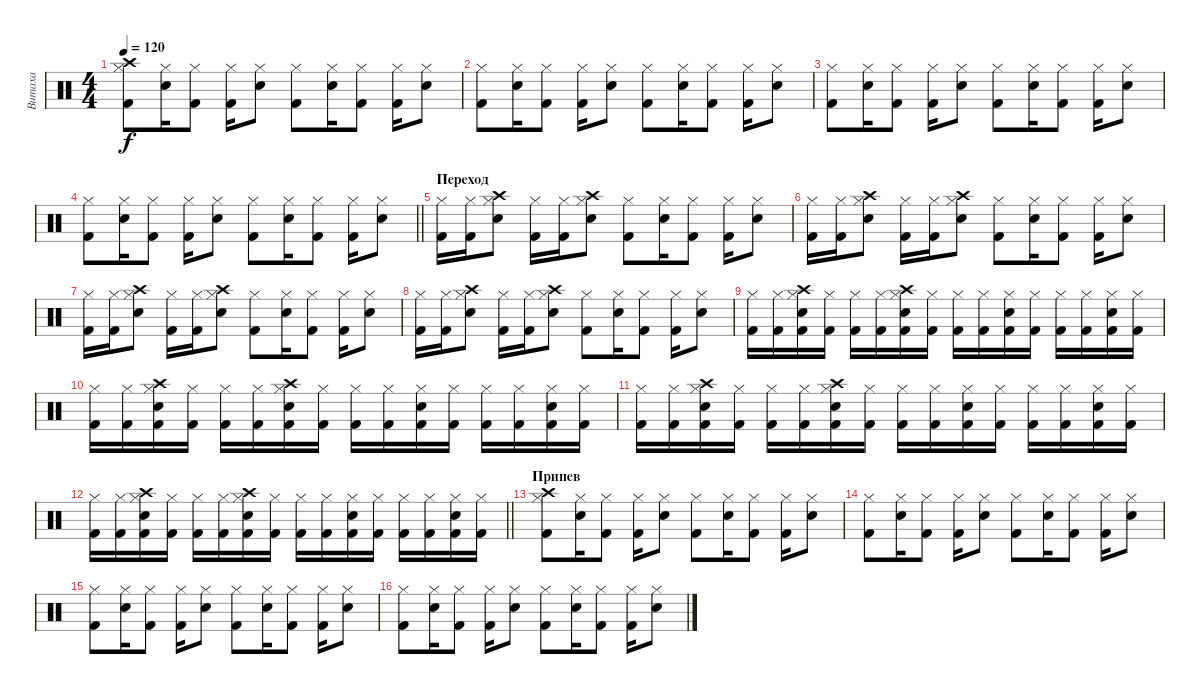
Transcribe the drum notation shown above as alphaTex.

\track ("Витаха" "Витаха") {instrument percussion}
\staff {score}
\articulation defaults
\ts (4 4)
\tempo 120
\clef neutral
\ks c
("Kick (hit) 2" "Crash high (hit)" "Hi-Hat (closed)").8{dy f} ("Electric Snare (hit)" "Hi-Hat (closed)").16 ("Kick (hit) 2" "Hi-Hat (closed)").8 ("Kick (hit) 2" "Hi-Hat (closed)").16 ("Electric Snare (hit)" "Hi-Hat (closed)").8 ("Kick (hit) 2" "Hi-Hat (closed)").8 ("Electric Snare (hit)" "Hi-Hat (closed)").16 ("Kick (hit) 2" "Hi-Hat (closed)").8 ("Kick (hit) 2" "Hi-Hat (closed)").16 ("Electric Snare (hit)" "Hi-Hat (closed)").8 |
("Kick (hit) 2" "Hi-Hat (closed)").8 ("Electric Snare (hit)" "Hi-Hat (closed)").16 ("Kick (hit) 2" "Hi-Hat (closed)").8 ("Kick (hit) 2" "Hi-Hat (closed)").16 ("Electric Snare (hit)" "Hi-Hat (closed)").8 ("Kick (hit) 2" "Hi-Hat (closed)").8 ("Electric Snare (hit)" "Hi-Hat (closed)").16 ("Kick (hit) 2" "Hi-Hat (closed)").8 ("Kick (hit) 2" "Hi-Hat (closed)").16 ("Electric Snare (hit)" "Hi-Hat (closed)").8 |
("Kick (hit) 2" "Hi-Hat (closed)").8 ("Electric Snare (hit)" "Hi-Hat (closed)").16 ("Kick (hit) 2" "Hi-Hat (closed)").8 ("Kick (hit) 2" "Hi-Hat (closed)").16 ("Electric Snare (hit)" "Hi-Hat (closed)").8 ("Kick (hit) 2" "Hi-Hat (closed)").8 ("Electric Snare (hit)" "Hi-Hat (closed)").16 ("Kick (hit) 2" "Hi-Hat (closed)").8 ("Kick (hit) 2" "Hi-Hat (closed)").16 ("Electric Snare (hit)" "Hi-Hat (closed)").8 |
\barLineRight lightlight
("Kick (hit) 2" "Hi-Hat (closed)").8 ("Electric Snare (hit)" "Hi-Hat (closed)").16 ("Kick (hit) 2" "Hi-Hat (closed)").8 ("Kick (hit) 2" "Hi-Hat (closed)").16 ("Electric Snare (hit)" "Hi-Hat (closed)").8 ("Kick (hit) 2" "Hi-Hat (closed)").8 ("Electric Snare (hit)" "Hi-Hat (closed)").16 ("Kick (hit) 2" "Hi-Hat (closed)").8 ("Kick (hit) 2" "Hi-Hat (closed)").16 ("Electric Snare (hit)" "Hi-Hat (closed)").8 |
\section ("" "Переход")
("Kick (hit) 2" "Hi-Hat (closed)").16 ("Kick (hit) 2" "Hi-Hat (closed)").16 ("Electric Snare (hit)" "Hi-Hat (closed)" "Crash high (hit)").8 ("Kick (hit) 2" "Hi-Hat (closed)").16 ("Kick (hit) 2" "Hi-Hat (closed)").16 ("Electric Snare (hit)" "Hi-Hat (closed)" "Crash high (hit)").8 ("Kick (hit) 2" "Hi-Hat (closed)").8 ("Electric Snare (hit)" "Hi-Hat (closed)").16 ("Kick (hit) 2" "Hi-Hat (closed)").8 ("Kick (hit) 2" "Hi-Hat (closed)").16 ("Electric Snare (hit)" "Hi-Hat (closed)").8 |
("Kick (hit) 2" "Hi-Hat (closed)").16 ("Kick (hit) 2" "Hi-Hat (closed)").16 ("Electric Snare (hit)" "Hi-Hat (closed)" "Crash high (hit)").8 ("Kick (hit) 2" "Hi-Hat (closed)").16 ("Kick (hit) 2" "Hi-Hat (closed)").16 ("Electric Snare (hit)" "Hi-Hat (closed)" "Crash high (hit)").8 ("Kick (hit) 2" "Hi-Hat (closed)").8 ("Electric Snare (hit)" "Hi-Hat (closed)").16 ("Kick (hit) 2" "Hi-Hat (closed)").8 ("Kick (hit) 2" "Hi-Hat (closed)").16 ("Electric Snare (hit)" "Hi-Hat (closed)").8 |
("Kick (hit) 2" "Hi-Hat (closed)").16 ("Kick (hit) 2" "Hi-Hat (closed)").16 ("Electric Snare (hit)" "Hi-Hat (closed)" "Crash high (hit)").8 ("Kick (hit) 2" "Hi-Hat (closed)").16 ("Kick (hit) 2" "Hi-Hat (closed)").16 ("Electric Snare (hit)" "Hi-Hat (closed)" "Crash high (hit)").8 ("Kick (hit) 2" "Hi-Hat (closed)").8 ("Electric Snare (hit)" "Hi-Hat (closed)").16 ("Kick (hit) 2" "Hi-Hat (closed)").8 ("Kick (hit) 2" "Hi-Hat (closed)").16 ("Electric Snare (hit)" "Hi-Hat (closed)").8 |
("Kick (hit) 2" "Hi-Hat (closed)").16 ("Kick (hit) 2" "Hi-Hat (closed)").16 ("Electric Snare (hit)" "Hi-Hat (closed)" "Crash high (hit)").8 ("Kick (hit) 2" "Hi-Hat (closed)").16 ("Kick (hit) 2" "Hi-Hat (closed)").16 ("Electric Snare (hit)" "Hi-Hat (closed)" "Crash high (hit)").8 ("Kick (hit) 2" "Hi-Hat (closed)").8 ("Electric Snare (hit)" "Hi-Hat (closed)").16 ("Kick (hit) 2" "Hi-Hat (closed)").8 ("Kick (hit) 2" "Hi-Hat (closed)").16 ("Electric Snare (hit)" "Hi-Hat (closed)").8 |
("Kick (hit) 2" "Hi-Hat (closed)").16 ("Kick (hit) 2" "Hi-Hat (closed)").16 ("Electric Snare (hit)" "Hi-Hat (closed)" "Crash high (hit)" "Kick (hit) 2").16 ("Kick (hit) 2" "Hi-Hat (closed)").16 ("Kick (hit) 2" "Hi-Hat (closed)").16 ("Kick (hit) 2" "Hi-Hat (closed)").16 ("Electric Snare (hit)" "Hi-Hat (closed)" "Crash high (hit)" "Kick (hit) 2").16 ("Kick (hit) 2" "Hi-Hat (closed)").16 ("Kick (hit) 2" "Hi-Hat (closed)").16 ("Kick (hit) 2" "Hi-Hat (closed)").16 ("Electric Snare (hit)" "Hi-Hat (closed)" "Kick (hit) 2").16 ("Kick (hit) 2" "Hi-Hat (closed)").16 ("Kick (hit) 2" "Hi-Hat (closed)").16 ("Kick (hit) 2" "Hi-Hat (closed)").16 ("Electric Snare (hit)" "Hi-Hat (closed)" "Kick (hit) 2").16 ("Kick (hit) 2" "Hi-Hat (closed)").16 |
("Kick (hit) 2" "Hi-Hat (closed)").16 ("Kick (hit) 2" "Hi-Hat (closed)").16 ("Electric Snare (hit)" "Hi-Hat (closed)" "Crash high (hit)" "Kick (hit) 2").16 ("Kick (hit) 2" "Hi-Hat (closed)").16 ("Kick (hit) 2" "Hi-Hat (closed)").16 ("Kick (hit) 2" "Hi-Hat (closed)").16 ("Electric Snare (hit)" "Hi-Hat (closed)" "Crash high (hit)" "Kick (hit) 2").16 ("Kick (hit) 2" "Hi-Hat (closed)").16 ("Kick (hit) 2" "Hi-Hat (closed)").16 ("Kick (hit) 2" "Hi-Hat (closed)").16 ("Electric Snare (hit)" "Hi-Hat (closed)" "Kick (hit) 2").16 ("Kick (hit) 2" "Hi-Hat (closed)").16 ("Kick (hit) 2" "Hi-Hat (closed)").16 ("Kick (hit) 2" "Hi-Hat (closed)").16 ("Electric Snare (hit)" "Hi-Hat (closed)" "Kick (hit) 2").16 ("Kick (hit) 2" "Hi-Hat (closed)").16 |
("Kick (hit) 2" "Hi-Hat (closed)").16 ("Kick (hit) 2" "Hi-Hat (closed)").16 ("Electric Snare (hit)" "Hi-Hat (closed)" "Crash high (hit)" "Kick (hit) 2").16 ("Kick (hit) 2" "Hi-Hat (closed)").16 ("Kick (hit) 2" "Hi-Hat (closed)").16 ("Kick (hit) 2" "Hi-Hat (closed)").16 ("Electric Snare (hit)" "Hi-Hat (closed)" "Crash high (hit)" "Kick (hit) 2").16 ("Kick (hit) 2" "Hi-Hat (closed)").16 ("Kick (hit) 2" "Hi-Hat (closed)").16 ("Kick (hit) 2" "Hi-Hat (closed)").16 ("Electric Snare (hit)" "Hi-Hat (closed)" "Kick (hit) 2").16 ("Kick (hit) 2" "Hi-Hat (closed)").16 ("Kick (hit) 2" "Hi-Hat (closed)").16 ("Kick (hit) 2" "Hi-Hat (closed)").16 ("Electric Snare (hit)" "Hi-Hat (closed)" "Kick (hit) 2").16 ("Kick (hit) 2" "Hi-Hat (closed)").16 |
\barLineRight lightlight
("Kick (hit) 2" "Hi-Hat (closed)").16 ("Kick (hit) 2" "Hi-Hat (closed)").16 ("Electric Snare (hit)" "Hi-Hat (closed)" "Crash high (hit)" "Kick (hit) 2").16 ("Kick (hit) 2" "Hi-Hat (closed)").16 ("Kick (hit) 2" "Hi-Hat (closed)").16 ("Kick (hit) 2" "Hi-Hat (closed)").16 ("Electric Snare (hit)" "Hi-Hat (closed)" "Crash high (hit)" "Kick (hit) 2").16 ("Kick (hit) 2" "Hi-Hat (closed)").16 ("Kick (hit) 2" "Hi-Hat (closed)").16 ("Kick (hit) 2" "Hi-Hat (closed)").16 ("Electric Snare (hit)" "Hi-Hat (closed)" "Kick (hit) 2").16 ("Kick (hit) 2" "Hi-Hat (closed)").16 ("Kick (hit) 2" "Hi-Hat (closed)").16 ("Kick (hit) 2" "Hi-Hat (closed)").16 ("Electric Snare (hit)" "Hi-Hat (closed)" "Kick (hit) 2").16 ("Kick (hit) 2" "Hi-Hat (closed)").16 |
\section ("" "Припев")
("Kick (hit) 2" "Crash high (hit)" "Hi-Hat (closed)").8 ("Electric Snare (hit)" "Hi-Hat (closed)").16 ("Kick (hit) 2" "Hi-Hat (closed)").8 ("Kick (hit) 2" "Hi-Hat (closed)").16 ("Electric Snare (hit)" "Hi-Hat (closed)").8 ("Kick (hit) 2" "Hi-Hat (closed)").8 ("Electric Snare (hit)" "Hi-Hat (closed)").16 ("Kick (hit) 2" "Hi-Hat (closed)").8 ("Kick (hit) 2" "Hi-Hat (closed)").16 ("Electric Snare (hit)" "Hi-Hat (closed)").8 |
("Kick (hit) 2" "Hi-Hat (closed)").8 ("Electric Snare (hit)" "Hi-Hat (closed)").16 ("Kick (hit) 2" "Hi-Hat (closed)").8 ("Kick (hit) 2" "Hi-Hat (closed)").16 ("Electric Snare (hit)" "Hi-Hat (closed)").8 ("Kick (hit) 2" "Hi-Hat (closed)").8 ("Electric Snare (hit)" "Hi-Hat (closed)").16 ("Kick (hit) 2" "Hi-Hat (closed)").8 ("Kick (hit) 2" "Hi-Hat (closed)").16 ("Electric Snare (hit)" "Hi-Hat (closed)").8 |
("Kick (hit) 2" "Hi-Hat (closed)").8 ("Electric Snare (hit)" "Hi-Hat (closed)").16 ("Kick (hit) 2" "Hi-Hat (closed)").8 ("Kick (hit) 2" "Hi-Hat (closed)").16 ("Electric Snare (hit)" "Hi-Hat (closed)").8 ("Kick (hit) 2" "Hi-Hat (closed)").8 ("Electric Snare (hit)" "Hi-Hat (closed)").16 ("Kick (hit) 2" "Hi-Hat (closed)").8 ("Kick (hit) 2" "Hi-Hat (closed)").16 ("Electric Snare (hit)" "Hi-Hat (closed)").8 |
("Kick (hit) 2" "Hi-Hat (closed)").8 ("Electric Snare (hit)" "Hi-Hat (closed)").16 ("Kick (hit) 2" "Hi-Hat (closed)").8 ("Kick (hit) 2" "Hi-Hat (closed)").16 ("Electric Snare (hit)" "Hi-Hat (closed)").8 ("Kick (hit) 2" "Hi-Hat (closed)").8 ("Electric Snare (hit)" "Hi-Hat (closed)").16 ("Kick (hit) 2" "Hi-Hat (closed)").8 ("Kick (hit) 2" "Hi-Hat (closed)").16 ("Electric Snare (hit)" "Hi-Hat (closed)").8
